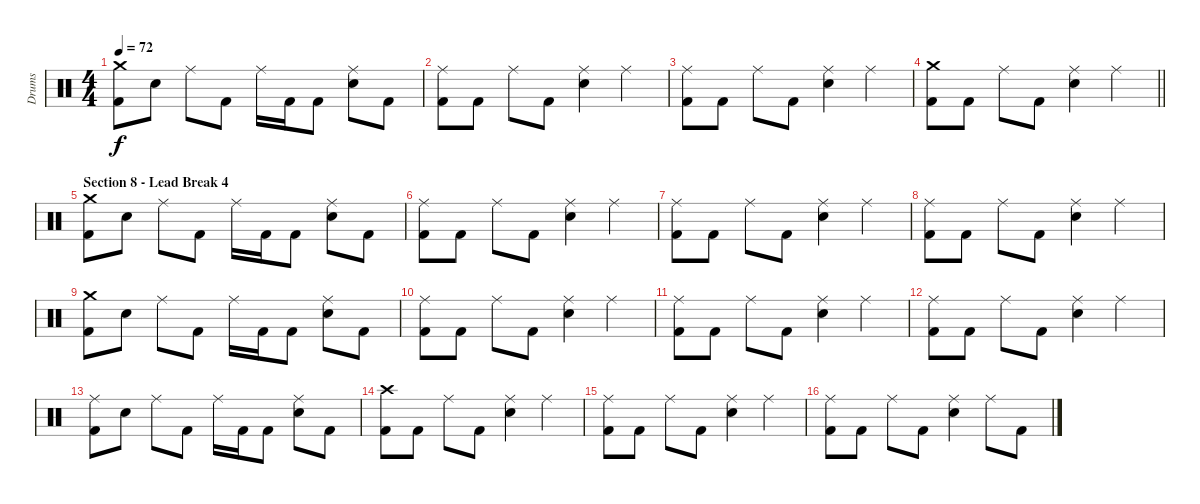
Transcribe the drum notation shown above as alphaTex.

\track ("Drums" "Drums") {instrument percussion}
\staff {score}
\articulation defaults
\ts (4 4)
\tempo 72
\clef neutral
\ks c
("Crash medium (hit)" "Kick (hit) 2").8{dy f} "Electric Snare (hit)".8 "Ride (middle)".8 "Kick (hit) 2".8 "Ride (middle)".16 "Kick (hit) 2".16 "Kick (hit) 2".8 ("Ride (middle)" "Electric Snare (hit)").8 "Kick (hit) 2".8 |
("Ride (middle)" "Kick (hit) 2").8 "Kick (hit) 2".8 "Ride (middle)".8 "Kick (hit) 2".8 ("Ride (middle)" "Electric Snare (hit)").4 "Ride (middle)".4 |
("Ride (middle)" "Kick (hit) 2").8 "Kick (hit) 2".8 "Ride (middle)".8 "Kick (hit) 2".8 ("Ride (middle)" "Electric Snare (hit)").4 "Ride (middle)".4 |
\barLineRight lightlight
("Crash medium (hit)" "Kick (hit) 2").8 "Kick (hit) 2".8 "Ride (middle)".8 "Kick (hit) 2".8 ("Ride (middle)" "Electric Snare (hit)").4 "Ride (middle)".4 |
\section ("" "Section 8 - Lead Break 4")
("Crash medium (hit)" "Kick (hit) 2").8 "Electric Snare (hit)".8 "Ride (middle)".8 "Kick (hit) 2".8 "Ride (middle)".16 "Kick (hit) 2".16 "Kick (hit) 2".8 ("Ride (middle)" "Electric Snare (hit)").8 "Kick (hit) 2".8 |
("Ride (middle)" "Kick (hit) 2").8 "Kick (hit) 2".8 "Ride (middle)".8 "Kick (hit) 2".8 ("Ride (middle)" "Electric Snare (hit)").4 "Ride (middle)".4 |
("Ride (middle)" "Kick (hit) 2").8 "Kick (hit) 2".8 "Ride (middle)".8 "Kick (hit) 2".8 ("Ride (middle)" "Electric Snare (hit)").4 "Ride (middle)".4 |
("Ride (middle)" "Kick (hit) 2").8 "Kick (hit) 2".8 "Ride (middle)".8 "Kick (hit) 2".8 ("Ride (middle)" "Electric Snare (hit)").4 "Ride (middle)".4 |
("Crash medium (hit)" "Kick (hit) 2").8 "Electric Snare (hit)".8 "Ride (middle)".8 "Kick (hit) 2".8 "Ride (middle)".16 "Kick (hit) 2".16 "Kick (hit) 2".8 ("Ride (middle)" "Electric Snare (hit)").8 "Kick (hit) 2".8 |
("Ride (middle)" "Kick (hit) 2").8 "Kick (hit) 2".8 "Ride (middle)".8 "Kick (hit) 2".8 ("Ride (middle)" "Electric Snare (hit)").4 "Ride (middle)".4 |
("Ride (middle)" "Kick (hit) 2").8 "Kick (hit) 2".8 "Ride (middle)".8 "Kick (hit) 2".8 ("Ride (middle)" "Electric Snare (hit)").4 "Ride (middle)".4 |
("Ride (middle)" "Kick (hit) 2").8 "Kick (hit) 2".8 "Ride (middle)".8 "Kick (hit) 2".8 ("Ride (middle)" "Electric Snare (hit)").4 "Ride (middle)".4 |
("Ride (middle)" "Kick (hit) 2").8 "Electric Snare (hit)".8 "Ride (middle)".8 "Kick (hit) 2".8 "Ride (middle)".16 "Kick (hit) 2".16 "Kick (hit) 2".8 ("Ride (middle)" "Electric Snare (hit)").8 "Kick (hit) 2".8 |
("Crash high (hit)" "Kick (hit) 2").8 "Kick (hit) 2".8 "Ride (middle)".8 "Kick (hit) 2".8 ("Ride (middle)" "Electric Snare (hit)").4 "Ride (middle)".4 |
("Ride (middle)" "Kick (hit) 2").8 "Kick (hit) 2".8 "Ride (middle)".8 "Kick (hit) 2".8 ("Ride (middle)" "Electric Snare (hit)").4 "Ride (middle)".4 |
("Ride (middle)" "Kick (hit) 2").8 "Kick (hit) 2".8 "Ride (middle)".8 "Kick (hit) 2".8 ("Ride (middle)" "Electric Snare (hit)").4 "Ride (middle)".8 "Kick (hit) 2".8
